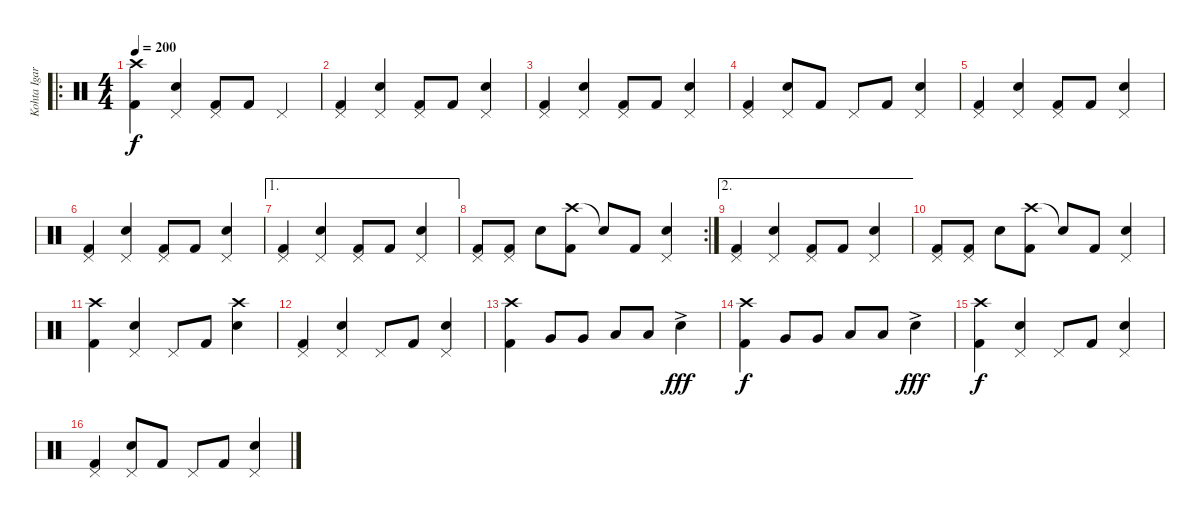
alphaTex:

\track ("Kohta Igarashi" "Kohta Igar") {instrument percussion}
\staff {score}
\articulation defaults
\ro
\ts (4 4)
\tempo 200
\clef neutral
\ks c
("Crash high (hit)" "Kick (hit) 2").4{dy f} ("Pedal Hi-Hat (hit)" "Electric Snare (hit)").4 ("Pedal Hi-Hat (hit)" "Kick (hit) 2").8 "Kick (hit) 2".8 "Pedal Hi-Hat (hit)".4 |
("Pedal Hi-Hat (hit)" "Kick (hit) 2").4 ("Pedal Hi-Hat (hit)" "Electric Snare (hit)").4 ("Pedal Hi-Hat (hit)" "Kick (hit) 2").8 "Kick (hit) 2".8 ("Pedal Hi-Hat (hit)" "Electric Snare (hit)").4 |
("Pedal Hi-Hat (hit)" "Kick (hit) 2").4 ("Pedal Hi-Hat (hit)" "Electric Snare (hit)").4 ("Pedal Hi-Hat (hit)" "Kick (hit) 2").8 "Kick (hit) 2".8 ("Pedal Hi-Hat (hit)" "Electric Snare (hit)").4 |
("Pedal Hi-Hat (hit)" "Kick (hit) 2").4 ("Pedal Hi-Hat (hit)" "Electric Snare (hit)").8 "Kick (hit) 2".8 "Pedal Hi-Hat (hit)".8 "Kick (hit) 2".8 ("Pedal Hi-Hat (hit)" "Electric Snare (hit)").4 |
("Pedal Hi-Hat (hit)" "Kick (hit) 2").4 ("Pedal Hi-Hat (hit)" "Electric Snare (hit)").4 ("Pedal Hi-Hat (hit)" "Kick (hit) 2").8 "Kick (hit) 2".8 ("Pedal Hi-Hat (hit)" "Electric Snare (hit)").4 |
("Pedal Hi-Hat (hit)" "Kick (hit) 2").4 ("Pedal Hi-Hat (hit)" "Electric Snare (hit)").4 ("Pedal Hi-Hat (hit)" "Kick (hit) 2").8 "Kick (hit) 2".8 ("Pedal Hi-Hat (hit)" "Electric Snare (hit)").4 |
\ae 1
("Pedal Hi-Hat (hit)" "Kick (hit) 2").4 ("Pedal Hi-Hat (hit)" "Electric Snare (hit)").4 ("Pedal Hi-Hat (hit)" "Kick (hit) 2").8 "Kick (hit) 2".8 ("Pedal Hi-Hat (hit)" "Electric Snare (hit)").4 |
\rc 2
("Pedal Hi-Hat (hit)" "Kick (hit) 2").8 ("Pedal Hi-Hat (hit)" "Kick (hit) 2").8 "Electric Snare (hit)".8 ("Crash high (hit)" "Kick (hit) 2").8 "Snare (hit)"{t}.8 "Kick (hit) 2".8 ("Pedal Hi-Hat (hit)" "Electric Snare (hit)").4 |
\ae 2
("Pedal Hi-Hat (hit)" "Kick (hit) 2").4 ("Pedal Hi-Hat (hit)" "Electric Snare (hit)").4 ("Pedal Hi-Hat (hit)" "Kick (hit) 2").8 "Kick (hit) 2".8 ("Pedal Hi-Hat (hit)" "Electric Snare (hit)").4 |
("Pedal Hi-Hat (hit)" "Kick (hit) 2").8 ("Pedal Hi-Hat (hit)" "Kick (hit) 2").8 "Electric Snare (hit)".8 ("Crash high (hit)" "Kick (hit) 2").8 "Snare (hit)"{t}.8 "Kick (hit) 2".8 ("Pedal Hi-Hat (hit)" "Electric Snare (hit)").4 |
("Crash high (hit)" "Kick (hit) 2").4 ("Pedal Hi-Hat (hit)" "Electric Snare (hit)").4 "Pedal Hi-Hat (hit)".8 "Kick (hit) 2".8 ("Crash high (hit)" "Electric Snare (hit)").4 |
("Pedal Hi-Hat (hit)" "Kick (hit) 2").4 ("Pedal Hi-Hat (hit)" "Electric Snare (hit)").4 "Pedal Hi-Hat (hit)".8 "Kick (hit) 2".8 ("Pedal Hi-Hat (hit)" "Electric Snare (hit)").4 |
("Crash high (hit)" "Kick (hit) 2").4 "Very Low Tom (hit)".8 "Very Low Tom (hit)".8 "Low Floor Tom (hit)".8 "Low Floor Tom (hit)".8 "Electric Snare (hit)"{ac}.4{dy fff} |
("Crash high (hit)" "Kick (hit) 2").4{dy f} "Very Low Tom (hit)".8 "Very Low Tom (hit)".8 "Low Floor Tom (hit)".8 "Low Floor Tom (hit)".8 "Electric Snare (hit)"{ac}.4{dy fff} |
("Crash high (hit)" "Kick (hit) 2").4{dy f} ("Pedal Hi-Hat (hit)" "Electric Snare (hit)").4 "Pedal Hi-Hat (hit)".8 "Kick (hit) 2".8 ("Pedal Hi-Hat (hit)" "Electric Snare (hit)").4 |
("Pedal Hi-Hat (hit)" "Kick (hit) 2").4 ("Pedal Hi-Hat (hit)" "Electric Snare (hit)").8 "Kick (hit) 2".8 "Pedal Hi-Hat (hit)".8 "Kick (hit) 2".8 ("Pedal Hi-Hat (hit)" "Electric Snare (hit)").4
